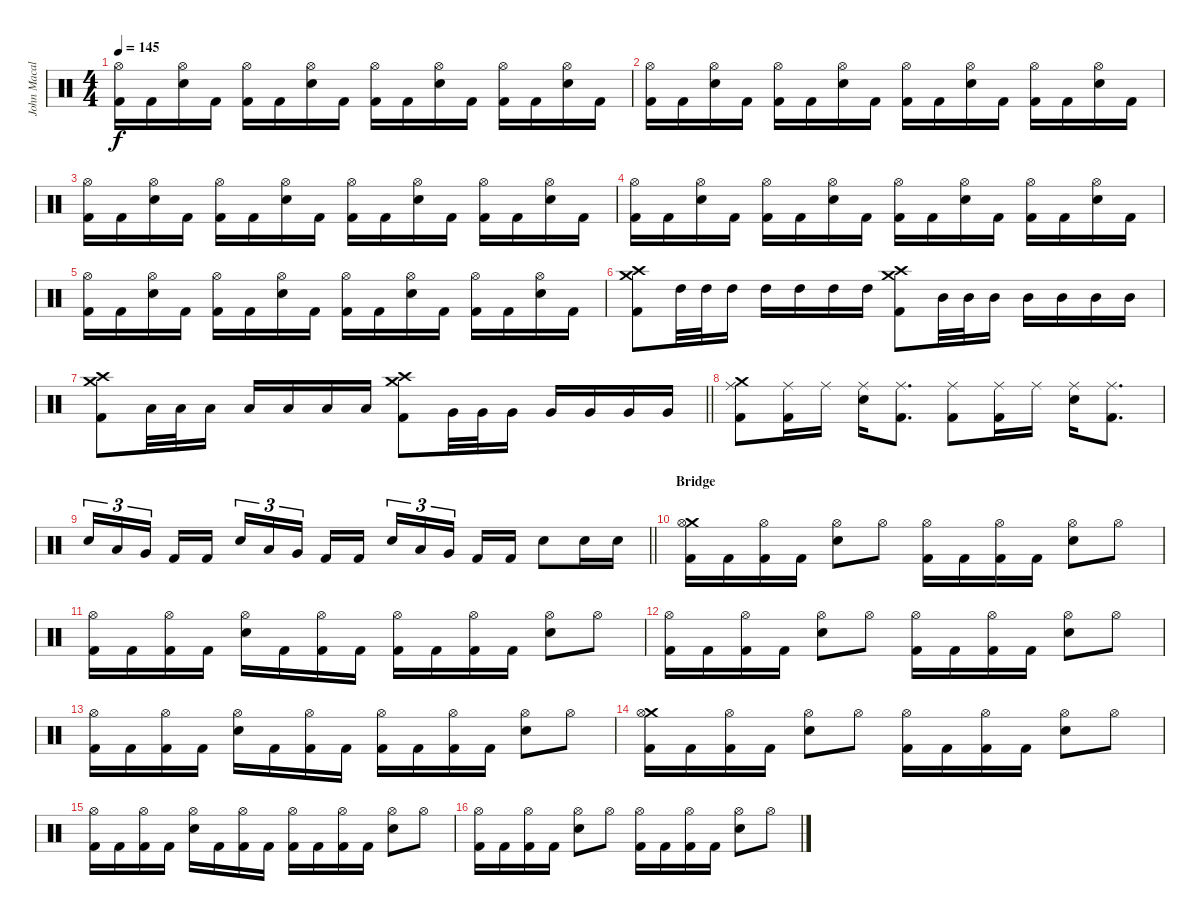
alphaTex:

\track ("John Macaluso" "John Macal") {instrument percussion}
\staff {score}
\articulation defaults
\ts (4 4)
\tempo 145
\clef neutral
\ks c
("Hi-Hat (open)" "Kick (hit) 2").16{dy f} "Kick (hit) 2".16 ("Hi-Hat (open)" "Snare (hit) 2").16 "Kick (hit) 2".16 ("Hi-Hat (open)" "Kick (hit) 2").16 "Kick (hit) 2".16 ("Hi-Hat (open)" "Snare (hit) 2").16 "Kick (hit) 2".16 ("Hi-Hat (open)" "Kick (hit) 2").16 "Kick (hit) 2".16 ("Hi-Hat (open)" "Snare (hit) 2").16 "Kick (hit) 2".16 ("Hi-Hat (open)" "Kick (hit) 2").16 "Kick (hit) 2".16 ("Hi-Hat (open)" "Snare (hit) 2").16 "Kick (hit) 2".16 |
("Hi-Hat (open)" "Kick (hit) 2").16 "Kick (hit) 2".16 ("Hi-Hat (open)" "Snare (hit) 2").16 "Kick (hit) 2".16 ("Hi-Hat (open)" "Kick (hit) 2").16 "Kick (hit) 2".16 ("Hi-Hat (open)" "Snare (hit) 2").16 "Kick (hit) 2".16 ("Hi-Hat (open)" "Kick (hit) 2").16 "Kick (hit) 2".16 ("Hi-Hat (open)" "Snare (hit) 2").16 "Kick (hit) 2".16 ("Hi-Hat (open)" "Kick (hit) 2").16 "Kick (hit) 2".16 ("Hi-Hat (open)" "Snare (hit) 2").16 "Kick (hit) 2".16 |
("Hi-Hat (open)" "Kick (hit) 2").16 "Kick (hit) 2".16 ("Hi-Hat (open)" "Snare (hit) 2").16 "Kick (hit) 2".16 ("Hi-Hat (open)" "Kick (hit) 2").16 "Kick (hit) 2".16 ("Hi-Hat (open)" "Snare (hit) 2").16 "Kick (hit) 2".16 ("Hi-Hat (open)" "Kick (hit) 2").16 "Kick (hit) 2".16 ("Hi-Hat (open)" "Snare (hit) 2").16 "Kick (hit) 2".16 ("Hi-Hat (open)" "Kick (hit) 2").16 "Kick (hit) 2".16 ("Hi-Hat (open)" "Snare (hit) 2").16 "Kick (hit) 2".16 |
("Hi-Hat (open)" "Kick (hit) 2").16 "Kick (hit) 2".16 ("Hi-Hat (open)" "Snare (hit) 2").16 "Kick (hit) 2".16 ("Hi-Hat (open)" "Kick (hit) 2").16 "Kick (hit) 2".16 ("Hi-Hat (open)" "Snare (hit) 2").16 "Kick (hit) 2".16 ("Hi-Hat (open)" "Kick (hit) 2").16 "Kick (hit) 2".16 ("Hi-Hat (open)" "Snare (hit) 2").16 "Kick (hit) 2".16 ("Hi-Hat (open)" "Kick (hit) 2").16 "Kick (hit) 2".16 ("Hi-Hat (open)" "Snare (hit) 2").16 "Kick (hit) 2".16 |
("Hi-Hat (open)" "Kick (hit) 2").16 "Kick (hit) 2".16 ("Hi-Hat (open)" "Snare (hit) 2").16 "Kick (hit) 2".16 ("Hi-Hat (open)" "Kick (hit) 2").16 "Kick (hit) 2".16 ("Hi-Hat (open)" "Snare (hit) 2").16 "Kick (hit) 2".16 ("Hi-Hat (open)" "Kick (hit) 2").16 "Kick (hit) 2".16 ("Hi-Hat (open)" "Snare (hit) 2").16 "Kick (hit) 2".16 ("Hi-Hat (open)" "Kick (hit) 2").16 "Kick (hit) 2".16 ("Hi-Hat (open)" "Snare (hit) 2").16 "Kick (hit) 2".16 |
("Crash medium (hit)" "Crash high (hit)" "Kick (hit) 2").8 "High Tom (hit)".32 "High Tom (hit)".32 "High Tom (hit)".16 "High Tom (hit)".16 "High Tom (hit)".16 "High Tom (hit)".16 "High Tom (hit)".16 ("Crash medium (hit)" "Crash high (hit)" "Kick (hit) 2").8 "Mid Tom (hit)".32 "Mid Tom (hit)".32 "Mid Tom (hit)".16 "Mid Tom (hit)".16 "Mid Tom (hit)".16 "Mid Tom (hit)".16 "Mid Tom (hit)".16 |
\barLineRight lightlight
("Crash medium (hit)" "Crash high (hit)" "Kick (hit) 2").8 "Low Tom (hit)".32 "Low Tom (hit)".32 "Low Tom (hit)".16 "Low Tom (hit)".16 "Low Tom (hit)".16 "Low Tom (hit)".16 "Low Tom (hit)".16 ("Crash medium (hit)" "Crash high (hit)" "Kick (hit) 2").8 "Very Low Tom (hit)".32 "Very Low Tom (hit)".32 "Very Low Tom (hit)".16 "Very Low Tom (hit)".16 "Very Low Tom (hit)".16 "Very Low Tom (hit)".16 "Very Low Tom (hit)".16 |
("Crash medium (hit)" "Ride (middle)" "Kick (hit) 2").8 ("Ride (middle)" "Kick (hit) 2").16 "Ride (middle)".16 ("Ride (middle)" "Snare (hit) 2").16 ("Ride (middle)" "Kick (hit) 2").8{d} ("Ride (middle)" "Kick (hit) 2").8 ("Ride (middle)" "Kick (hit) 2").16 "Ride (middle)".16 ("Ride (middle)" "Snare (hit) 2").16 ("Ride (middle)" "Kick (hit) 2").8{d} |
\barLineRight lightlight "Snare (hit) 2".16{tu (3 2)} "Low Tom (hit)".16{tu (3 2)} "Very Low Tom (hit)".16{tu (3 2) beam splitsecondary} "Kick (hit) 2".16 "Kick (hit) 2".16 "Snare (hit) 2".16{tu (3 2)} "Low Tom (hit)".16{tu (3 2)} "Very Low Tom (hit)".16{tu (3 2) beam splitsecondary} "Kick (hit) 2".16 "Kick (hit) 2".16 "Snare (hit) 2".16{tu (3 2)} "Low Tom (hit)".16{tu (3 2)} "Very Low Tom (hit)".16{tu (3 2) beam splitsecondary} "Kick (hit) 2".16 "Kick (hit) 2".16 "Snare (hit) 2".8 "Snare (hit) 2".16 "Snare (hit) 2".16
|
\section ("" "Bridge")
("Crash medium (hit)" "Hi-Hat (open)" "Kick (hit) 2").16 "Kick (hit) 2".16 ("Hi-Hat (open)" "Kick (hit) 2").16 "Kick (hit) 2".16 ("Hi-Hat (open)" "Snare (hit) 2").8 "Hi-Hat (open)".8 ("Hi-Hat (open)" "Kick (hit) 2").16 "Kick (hit) 2".16 ("Hi-Hat (open)" "Kick (hit) 2").16 "Kick (hit) 2".16 ("Hi-Hat (open)" "Snare (hit) 2").8 "Hi-Hat (open)".8 |
("Hi-Hat (open)" "Kick (hit) 2").16 "Kick (hit) 2".16 ("Hi-Hat (open)" "Kick (hit) 2").16 "Kick (hit) 2".16 ("Hi-Hat (open)" "Snare (hit) 2").16 "Kick (hit) 2".16 ("Hi-Hat (open)" "Kick (hit) 2").16 "Kick (hit) 2".16 ("Hi-Hat (open)" "Kick (hit) 2").16 "Kick (hit) 2".16 ("Hi-Hat (open)" "Kick (hit) 2").16 "Kick (hit) 2".16 ("Hi-Hat (open)" "Snare (hit) 2").8 "Hi-Hat (open)".8 |
("Hi-Hat (open)" "Kick (hit) 2").16 "Kick (hit) 2".16 ("Hi-Hat (open)" "Kick (hit) 2").16 "Kick (hit) 2".16 ("Hi-Hat (open)" "Snare (hit) 2").8 "Hi-Hat (open)".8 ("Hi-Hat (open)" "Kick (hit) 2").16 "Kick (hit) 2".16 ("Hi-Hat (open)" "Kick (hit) 2").16 "Kick (hit) 2".16 ("Hi-Hat (open)" "Snare (hit) 2").8 "Hi-Hat (open)".8 |
("Hi-Hat (open)" "Kick (hit) 2").16 "Kick (hit) 2".16 ("Hi-Hat (open)" "Kick (hit) 2").16 "Kick (hit) 2".16 ("Hi-Hat (open)" "Snare (hit) 2").16 "Kick (hit) 2".16 ("Hi-Hat (open)" "Kick (hit) 2").16 "Kick (hit) 2".16 ("Hi-Hat (open)" "Kick (hit) 2").16 "Kick (hit) 2".16 ("Hi-Hat (open)" "Kick (hit) 2").16 "Kick (hit) 2".16 ("Hi-Hat (open)" "Snare (hit) 2").8 "Hi-Hat (open)".8 |
("Crash medium (hit)" "Hi-Hat (open)" "Kick (hit) 2").16 "Kick (hit) 2".16 ("Hi-Hat (open)" "Kick (hit) 2").16 "Kick (hit) 2".16 ("Hi-Hat (open)" "Snare (hit) 2").8 "Hi-Hat (open)".8 ("Hi-Hat (open)" "Kick (hit) 2").16 "Kick (hit) 2".16 ("Hi-Hat (open)" "Kick (hit) 2").16 "Kick (hit) 2".16 ("Hi-Hat (open)" "Snare (hit) 2").8 "Hi-Hat (open)".8 |
("Hi-Hat (open)" "Kick (hit) 2").16 "Kick (hit) 2".16 ("Hi-Hat (open)" "Kick (hit) 2").16 "Kick (hit) 2".16 ("Hi-Hat (open)" "Snare (hit) 2").16 "Kick (hit) 2".16 ("Hi-Hat (open)" "Kick (hit) 2").16 "Kick (hit) 2".16 ("Hi-Hat (open)" "Kick (hit) 2").16 "Kick (hit) 2".16 ("Hi-Hat (open)" "Kick (hit) 2").16 "Kick (hit) 2".16 ("Hi-Hat (open)" "Snare (hit) 2").8 "Hi-Hat (open)".8 |
("Hi-Hat (open)" "Kick (hit) 2").16 "Kick (hit) 2".16 ("Hi-Hat (open)" "Kick (hit) 2").16 "Kick (hit) 2".16 ("Hi-Hat (open)" "Snare (hit) 2").8 "Hi-Hat (open)".8 ("Hi-Hat (open)" "Kick (hit) 2").16 "Kick (hit) 2".16 ("Hi-Hat (open)" "Kick (hit) 2").16 "Kick (hit) 2".16 ("Hi-Hat (open)" "Snare (hit) 2").8 "Hi-Hat (open)".8
